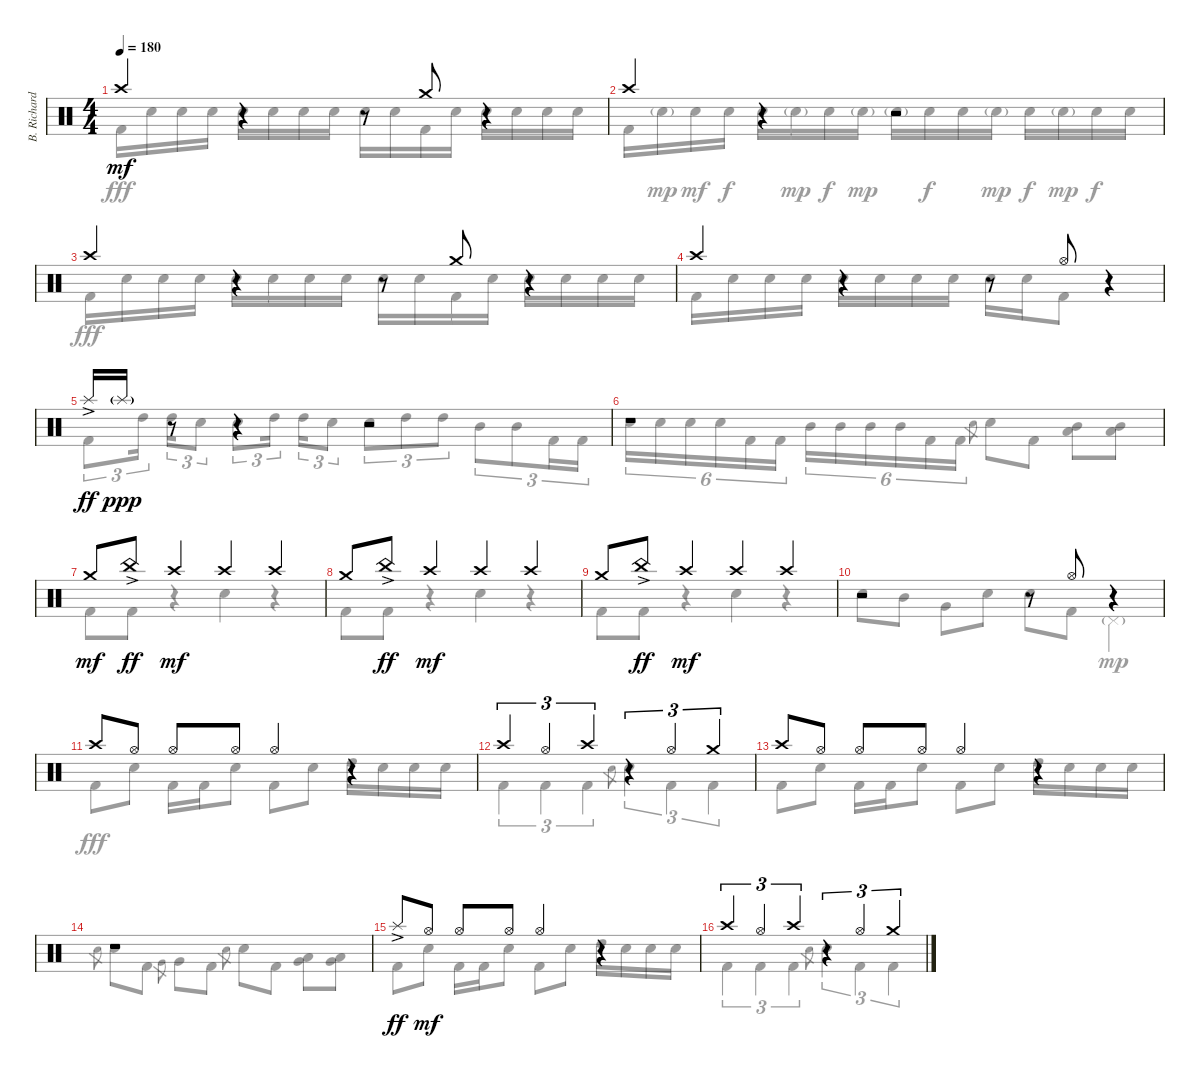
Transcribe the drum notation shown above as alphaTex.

\track ("B. Richardson Drums" "B. Richard") {instrument percussion}
\staff {score}
\articulation defaults
\voice
\ts (4 4)
\tempo 180
\clef neutral
\ks c "Crash high (hit)".4{dy mf}
r.4 r.8 "Crash medium (hit)".8 r.4 |
"Crash high (hit)".4 r.4 r.2 |
"Crash high (hit)".4 r.4 r.8 "Crash medium (hit)".8 r.4 |
"Crash high (hit)".4 r.4 r.8 "Hi-Hat (open)".8 r.4 |
"Splash (hit)"{ac}.16{dy ff} "Splash (hit)"{g}.16{dy ppp} r.8 r.4 r.2 |
r.1 |
"Crash medium (hit)".8{dy mf} "China (hit)"{ac}.8{dy ff} "Crash high (hit)".4{dy mf} "Crash high (hit)".4 "Crash high (hit)".4 |
"Crash medium (hit)".8 "China (hit)"{ac}.8{dy ff} "Crash high (hit)".4{dy mf} "Crash high (hit)".4 "Crash high (hit)".4 |
"Crash medium (hit)".8 "China (hit)"{ac}.8{dy ff} "Crash high (hit)".4{dy mf} "Crash high (hit)".4 "Crash high (hit)".4 |
r.2 r.8 "Hi-Hat (open)".8 r.4 |
"Crash high (hit)".8 "Hi-Hat (open)".8 "Hi-Hat (open)".8 "Hi-Hat (open)".8 "Hi-Hat (open)".4 r.4 |
"Crash high (hit)".4{tu (3 2)} "Hi-Hat (open)".4{tu (3 2)} "Crash high (hit)".4{tu (3 2)} r.4{tu (3 2)} "Hi-Hat (open)".4{tu (3 2)} "Crash medium (hit)".4{tu (3 2)} |
"Crash high (hit)".8 "Hi-Hat (open)".8 "Hi-Hat (open)".8 "Hi-Hat (open)".8 "Hi-Hat (open)".4 r.4 |
r.1 |
"Splash (hit)"{ac}.8{dy ff} "Hi-Hat (open)".8{dy mf} "Hi-Hat (open)".8 "Hi-Hat (open)".8 "Hi-Hat (open)".4 r.4 |
"Crash high (hit)".4{tu (3 2)} "Hi-Hat (open)".4{tu (3 2)} "Crash high (hit)".4{tu (3 2)} r.4{tu (3 2)} "Hi-Hat (open)".4{tu (3 2)} "Crash medium (hit)".4{tu (3 2)}
\voice
\clef neutral
\ottava regular
\simile none
\ks c "Kick (hit) 2".16{dy fff} "Electric Snare (hit)".16 "Electric Snare (hit)".16 "Electric Snare (hit)".16 "Electric Snare (hit)".16 "Electric Snare (hit)".16 "Electric Snare (hit)".16 "Electric Snare (hit)".16 "Electric Snare (hit)".16 "Electric Snare (hit)".16 "Kick (hit) 2".16 "Electric Snare (hit)".16 "Electric Snare (hit)".16 "Electric Snare (hit)".16 "Electric Snare (hit)".16 "Electric Snare (hit)".16
|
"Kick (hit) 2".16 "Electric Snare (hit)"{g}.16{dy mp} "Electric Snare (hit)".16{dy mf} "Electric Snare (hit)".16{dy f} "Electric Snare (hit)".16 "Electric Snare (hit)"{g}.16{dy mp} "Electric Snare (hit)".16{dy f} "Electric Snare (hit)"{g}.16{dy mp} "Electric Snare (hit)"{g}.16 "Electric Snare (hit)".16{dy f} "Electric Snare (hit)".16 "Electric Snare (hit)"{g}.16{dy mp} "Electric Snare (hit)".16{dy f} "Electric Snare (hit)"{g}.16{dy mp} "Electric Snare (hit)".16{dy f} "Electric Snare (hit)".16 |
"Kick (hit) 2".16{dy fff} "Electric Snare (hit)".16 "Electric Snare (hit)".16 "Electric Snare (hit)".16 "Electric Snare (hit)".16 "Electric Snare (hit)".16 "Electric Snare (hit)".16 "Electric Snare (hit)".16 "Electric Snare (hit)".16 "Electric Snare (hit)".16 "Kick (hit) 2".16 "Electric Snare (hit)".16 "Electric Snare (hit)".16 "Electric Snare (hit)".16 "Electric Snare (hit)".16 "Electric Snare (hit)".16 |
"Kick (hit) 2".16 "Electric Snare (hit)".16 "Electric Snare (hit)".16 "Electric Snare (hit)".16 "Electric Snare (hit)".16 "Electric Snare (hit)".16 "Electric Snare (hit)".16 "Electric Snare (hit)".16 "Electric Snare (hit)".16 "Electric Snare (hit)".16 "Kick (hit) 2".8 r.4 |
"Kick (hit) 2".8{tu (3 2)} "High Tom (hit)".16{tu (3 2)} "High Tom (hit)".16{tu (3 2)} "Electric Snare (hit)".8{tu (3 2)} "Electric Snare (hit)".8{tu (3 2)} "High Tom (hit)".16{tu (3 2)} "High Tom (hit)".16{tu (3 2)} "Electric Snare (hit)".8{tu (3 2)} "Electric Snare (hit)".8{tu (3 2)} "High Tom (hit)".8{tu (3 2)} "High Tom (hit)".8{tu (3 2)} "Mid Tom (hit)".8{tu (3 2)} "Mid Tom (hit)".8{tu (3 2)} "Kick (hit) 2".16{tu (3 2)} "Kick (hit) 2".16{tu (3 2)} |
"Electric Snare (hit)".16{tu (6 4)} "Electric Snare (hit)".16{tu (6 4)} "Electric Snare (hit)".16{tu (6 4)} "Electric Snare (hit)".16{tu (6 4)} "Kick (hit) 2".16{tu (6 4)} "Kick (hit) 2".16{tu (6 4)} "Mid Tom (hit)".16{tu (6 4)} "Mid Tom (hit)".16{tu (6 4)} "Mid Tom (hit)".16{tu (6 4)} "Mid Tom (hit)".16{tu (6 4)} "Kick (hit) 2".16{tu (6 4)} "Kick (hit) 2".16{tu (6 4)} "Electric Snare (hit)".8{gr} "Electric Snare (hit)".8 "Kick (hit) 2".8 ("Mid Tom (hit)" "Low Tom (hit)").8 ("Mid Tom (hit)" "Low Tom (hit)").8 |
"Kick (hit) 2".8 "Kick (hit) 2".8 r.4 "Electric Snare (hit)".4 r.4 |
"Kick (hit) 2".8 "Kick (hit) 2".8 r.4 "Electric Snare (hit)".4 r.4 |
"Kick (hit) 2".8 "Kick (hit) 2".8 r.4 "Electric Snare (hit)".4 r.4 |
"Electric Snare (hit)".8 "Mid Tom (hit)".8 "Very Low Tom (hit)".8 "Electric Snare (hit)".8 "Electric Snare (hit)".8 "Kick (hit) 2".8 "Pedal Hi-Hat (hit)"{g}.4{dy mp} |
"Kick (hit) 2".8{dy fff} "Electric Snare (hit)".8 "Kick (hit) 2".16 "Kick (hit) 2".16 "Electric Snare (hit)".8 "Kick (hit) 2".8 "Electric Snare (hit)".8 "High Tom (hit)".16 "Electric Snare (hit)".16 "Electric Snare (hit)".16 "Electric Snare (hit)".16 |
"Kick (hit) 2".4{tu (3 2)} "Kick (hit) 2".4{tu (3 2)} "Kick (hit) 2".4{tu (3 2)} "Electric Snare (hit)".8{gr} "Electric Snare (hit)".4{tu (3 2)} "Kick (hit) 2".4{tu (3 2)} "Kick (hit) 2".4{tu (3 2)} |
"Kick (hit) 2".8 "Electric Snare (hit)".8 "Kick (hit) 2".16 "Kick (hit) 2".16 "Electric Snare (hit)".8 "Kick (hit) 2".8 "Electric Snare (hit)".8 "High Tom (hit)".16 "Electric Snare (hit)".16 "Electric Snare (hit)".16 "Electric Snare (hit)".16 |
"Electric Snare (hit)".8{gr} "Electric Snare (hit)".8 "Kick (hit) 2".8 "Very Low Tom (hit)".8{gr} "Very Low Tom (hit)".8 "Kick (hit) 2".8 "Electric Snare (hit)".8{gr} "Electric Snare (hit)".8 "Kick (hit) 2".8 ("Low Tom (hit)" "Very Low Tom (hit)").8 ("Low Tom (hit)" "Very Low Tom (hit)").8 |
"Kick (hit) 2".8 "Electric Snare (hit)".8 "Kick (hit) 2".16 "Kick (hit) 2".16 "Electric Snare (hit)".8 "Kick (hit) 2".8 "Electric Snare (hit)".8 "High Tom (hit)".16 "Electric Snare (hit)".16 "Electric Snare (hit)".16 "Electric Snare (hit)".16 |
"Kick (hit) 2".4{tu (3 2)} "Kick (hit) 2".4{tu (3 2)} "Kick (hit) 2".4{tu (3 2)} "Electric Snare (hit)".8{gr} "Electric Snare (hit)".4{tu (3 2)} "Kick (hit) 2".4{tu (3 2)} "Kick (hit) 2".4{tu (3 2)}
